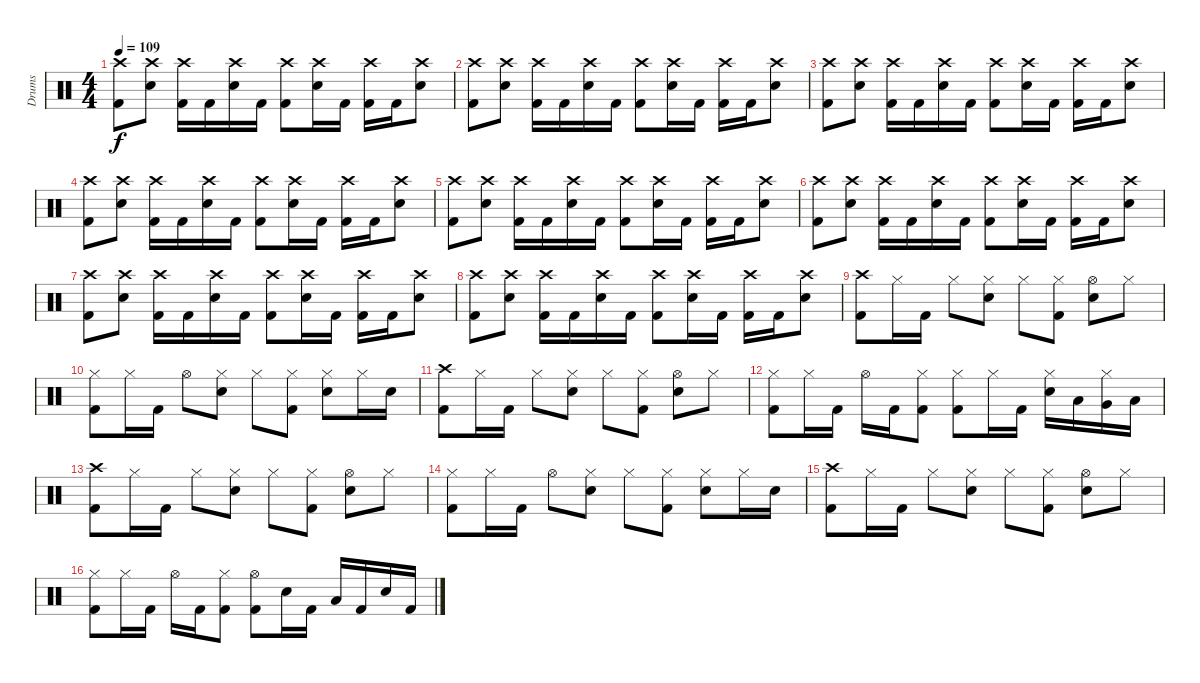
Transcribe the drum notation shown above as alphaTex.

\track ("Drums" "Drums") {instrument percussion}
\staff {score}
\articulation defaults
\ts (4 4)
\tempo 109
\clef neutral
\ks c
("Kick (hit) 2" "Crash high (hit)").8{dy f} ("Electric Snare (hit)" "Crash high (hit)").8 ("Kick (hit) 2" "Crash high (hit)").16 "Kick (hit) 2".16 ("Electric Snare (hit)" "Crash high (hit)").16 "Kick (hit) 2".16 ("Kick (hit) 2" "Crash high (hit)").8 ("Electric Snare (hit)" "Crash high (hit)").16 "Kick (hit) 2".16 ("Kick (hit) 2" "Crash high (hit)").16 "Kick (hit) 2".16 ("Electric Snare (hit)" "Crash high (hit)").8 |
("Kick (hit) 2" "Crash high (hit)").8 ("Electric Snare (hit)" "Crash high (hit)").8 ("Kick (hit) 2" "Crash high (hit)").16 "Kick (hit) 2".16 ("Electric Snare (hit)" "Crash high (hit)").16 "Kick (hit) 2".16 ("Kick (hit) 2" "Crash high (hit)").8 ("Electric Snare (hit)" "Crash high (hit)").16 "Kick (hit) 2".16 ("Kick (hit) 2" "Crash high (hit)").16 "Kick (hit) 2".16 ("Electric Snare (hit)" "Crash high (hit)").8 |
("Kick (hit) 2" "Crash high (hit)").8 ("Electric Snare (hit)" "Crash high (hit)").8 ("Kick (hit) 2" "Crash high (hit)").16 "Kick (hit) 2".16 ("Electric Snare (hit)" "Crash high (hit)").16 "Kick (hit) 2".16 ("Kick (hit) 2" "Crash high (hit)").8 ("Electric Snare (hit)" "Crash high (hit)").16 "Kick (hit) 2".16 ("Kick (hit) 2" "Crash high (hit)").16 "Kick (hit) 2".16 ("Electric Snare (hit)" "Crash high (hit)").8 |
("Kick (hit) 2" "Crash high (hit)").8 ("Electric Snare (hit)" "Crash high (hit)").8 ("Kick (hit) 2" "Crash high (hit)").16 "Kick (hit) 2".16 ("Electric Snare (hit)" "Crash high (hit)").16 "Kick (hit) 2".16 ("Kick (hit) 2" "Crash high (hit)").8 ("Electric Snare (hit)" "Crash high (hit)").16 "Kick (hit) 2".16 ("Kick (hit) 2" "Crash high (hit)").16 "Kick (hit) 2".16 ("Electric Snare (hit)" "Crash high (hit)").8 |
("Kick (hit) 2" "Crash high (hit)").8 ("Electric Snare (hit)" "Crash high (hit)").8 ("Kick (hit) 2" "Crash high (hit)").16 "Kick (hit) 2".16 ("Electric Snare (hit)" "Crash high (hit)").16 "Kick (hit) 2".16 ("Kick (hit) 2" "Crash high (hit)").8 ("Electric Snare (hit)" "Crash high (hit)").16 "Kick (hit) 2".16 ("Kick (hit) 2" "Crash high (hit)").16 "Kick (hit) 2".16 ("Electric Snare (hit)" "Crash high (hit)").8 |
("Kick (hit) 2" "Crash high (hit)").8 ("Electric Snare (hit)" "Crash high (hit)").8 ("Kick (hit) 2" "Crash high (hit)").16 "Kick (hit) 2".16 ("Electric Snare (hit)" "Crash high (hit)").16 "Kick (hit) 2".16 ("Kick (hit) 2" "Crash high (hit)").8 ("Electric Snare (hit)" "Crash high (hit)").16 "Kick (hit) 2".16 ("Kick (hit) 2" "Crash high (hit)").16 "Kick (hit) 2".16 ("Electric Snare (hit)" "Crash high (hit)").8 |
("Kick (hit) 2" "Crash high (hit)").8 ("Electric Snare (hit)" "Crash high (hit)").8 ("Kick (hit) 2" "Crash high (hit)").16 "Kick (hit) 2".16 ("Electric Snare (hit)" "Crash high (hit)").16 "Kick (hit) 2".16 ("Kick (hit) 2" "Crash high (hit)").8 ("Electric Snare (hit)" "Crash high (hit)").16 "Kick (hit) 2".16 ("Kick (hit) 2" "Crash high (hit)").16 "Kick (hit) 2".16 ("Electric Snare (hit)" "Crash high (hit)").8 |
("Kick (hit) 2" "Crash high (hit)").8 ("Electric Snare (hit)" "Crash high (hit)").8 ("Kick (hit) 2" "Crash high (hit)").16 "Kick (hit) 2".16 ("Electric Snare (hit)" "Crash high (hit)").16 "Kick (hit) 2".16 ("Kick (hit) 2" "Crash high (hit)").8 ("Electric Snare (hit)" "Crash high (hit)").16 "Kick (hit) 2".16 ("Kick (hit) 2" "Crash high (hit)").16 "Kick (hit) 2".16 ("Electric Snare (hit)" "Crash high (hit)").8 |
("Kick (hit) 2" "Crash high (hit)").8 "Hi-Hat (closed)".16 "Kick (hit) 2".16 "Hi-Hat (closed)".8 ("Electric Snare (hit)" "Hi-Hat (closed)").8 "Hi-Hat (closed)".8 ("Kick (hit) 2" "Hi-Hat (closed)").8 ("Electric Snare (hit)" "Hi-Hat (open)").8 "Hi-Hat (closed)".8 |
("Kick (hit) 2" "Hi-Hat (closed)").8 "Hi-Hat (closed)".16 "Kick (hit) 2".16 "Hi-Hat (open)".8 ("Electric Snare (hit)" "Hi-Hat (closed)").8 "Hi-Hat (closed)".8 ("Kick (hit) 2" "Hi-Hat (closed)").8 ("Electric Snare (hit)" "Hi-Hat (closed)").8 "Hi-Hat (closed)".16 "Electric Snare (hit)".16 |
("Kick (hit) 2" "Crash high (hit)").8 "Hi-Hat (closed)".16 "Kick (hit) 2".16 "Hi-Hat (closed)".8 ("Electric Snare (hit)" "Hi-Hat (closed)").8 "Hi-Hat (closed)".8 ("Kick (hit) 2" "Hi-Hat (closed)").8 ("Electric Snare (hit)" "Hi-Hat (open)").8 "Hi-Hat (closed)".8 |
("Kick (hit) 2" "Hi-Hat (closed)").8 "Hi-Hat (closed)".16 "Kick (hit) 2".16 "Hi-Hat (open)".16 "Kick (hit) 2".16 ("Kick (hit) 2" "Hi-Hat (closed)").8 ("Kick (hit) 2" "Hi-Hat (closed)").8 "Hi-Hat (closed)".16 "Kick (hit) 2".16 ("Electric Snare (hit)" "Hi-Hat (closed)").16 "Low Tom (hit)".16 ("Very Low Tom (hit)" "Hi-Hat (closed)").16 "Low Floor Tom (hit)".16 |
("Kick (hit) 2" "Crash high (hit)").8 "Hi-Hat (closed)".16 "Kick (hit) 2".16 "Hi-Hat (closed)".8 ("Electric Snare (hit)" "Hi-Hat (closed)").8 "Hi-Hat (closed)".8 ("Kick (hit) 2" "Hi-Hat (closed)").8 ("Electric Snare (hit)" "Hi-Hat (open)").8 "Hi-Hat (closed)".8 |
("Kick (hit) 2" "Hi-Hat (closed)").8 "Hi-Hat (closed)".16 "Kick (hit) 2".16 "Hi-Hat (open)".8 ("Electric Snare (hit)" "Hi-Hat (closed)").8 "Hi-Hat (closed)".8 ("Kick (hit) 2" "Hi-Hat (closed)").8 ("Electric Snare (hit)" "Hi-Hat (closed)").8 "Hi-Hat (closed)".16 "Electric Snare (hit)".16 |
("Kick (hit) 2" "Crash high (hit)").8 "Hi-Hat (closed)".16 "Kick (hit) 2".16 "Hi-Hat (closed)".8 ("Electric Snare (hit)" "Hi-Hat (closed)").8 "Hi-Hat (closed)".8 ("Kick (hit) 2" "Hi-Hat (closed)").8 ("Electric Snare (hit)" "Hi-Hat (open)").8 "Hi-Hat (closed)".8 |
("Kick (hit) 2" "Hi-Hat (closed)").8 "Hi-Hat (closed)".16 "Kick (hit) 2".16 "Hi-Hat (open)".16 "Kick (hit) 2".16 ("Kick (hit) 2" "Hi-Hat (closed)").8 ("Kick (hit) 2" "Hi-Hat (open)").8 "Electric Snare (hit)".16 "Kick (hit) 2".16 "Low Tom (hit)".16 "Kick (hit) 2".16 "Electric Snare (hit)".16 "Kick (hit) 2".16
